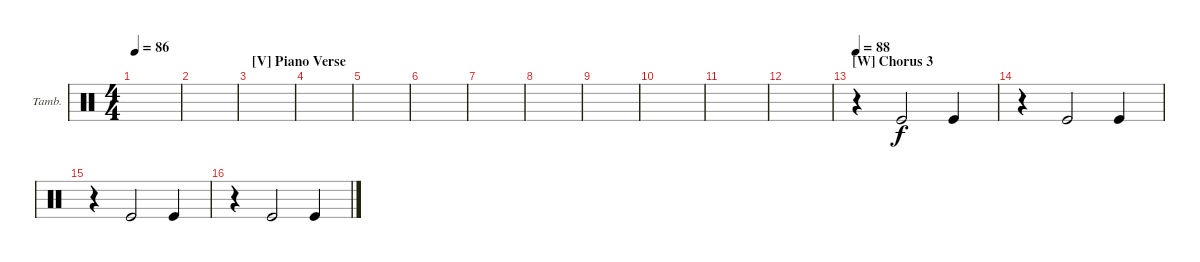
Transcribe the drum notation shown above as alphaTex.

\defaultSystemsLayout 4
\bracketExtendMode groupsimilarinstruments
\firstSystemTrackNameOrientation horizontal
\otherSystemsTrackNameOrientation horizontal
\track ("Tambourine" "Tamb.") {instrument percussion}
\staff {score}
\articulation defaults
\ts (4 4)
\tempo 86
\clef neutral
\ks c
|
|
\section ("V" "Piano Verse")
|
|
|
|
|
|
|
|
|
|
\section ("W" "Chorus 3")
\tempo 88
r.4 "Kick (hit)".2 "Kick (hit)".4 |
r.4 "Kick (hit)".2 "Kick (hit)".4 |
r.4 "Kick (hit)".2 "Kick (hit)".4 |
r.4 "Kick (hit)".2 "Kick (hit)".4
